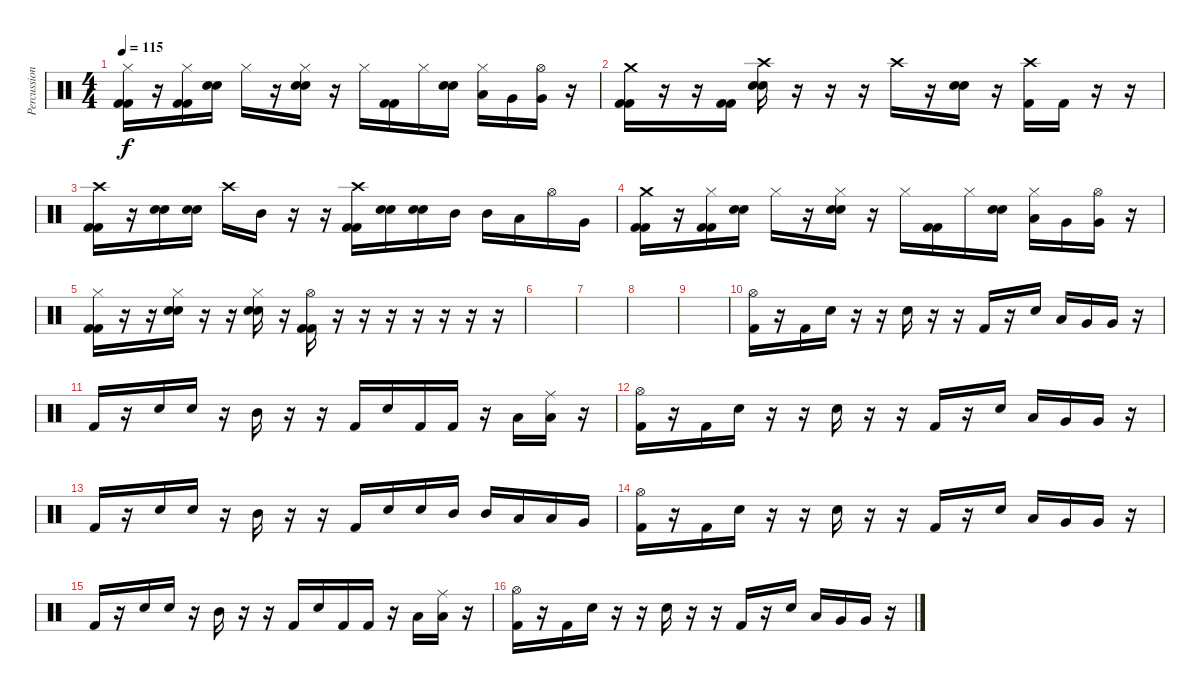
\track ("Percussion" "Percussion") {instrument percussion}
\staff {score}
\articulation defaults
\ts (4 4)
\tempo 115
\clef neutral
\ks c
("Hi-Hat (closed)" "Kick (hit) 2" "Kick (hit) 2").16{dy f} r.16 ("Hi-Hat (closed)" "Kick (hit) 2" "Kick (hit) 2").16 ("Electric Snare (hit)" "Electric Snare (hit)").16 "Hi-Hat (closed)".16 r.16 ("Hi-Hat (closed)" "Electric Snare (hit)" "Electric Snare (hit)").16 r.16 "Hi-Hat (closed)".16 ("Kick (hit) 2" "Kick (hit) 2").16 "Hi-Hat (closed)".16 ("Electric Snare (hit)" "Electric Snare (hit)").16 ("Hi-Hat (closed)" "Low Tom (hit)").16 "Very Low Tom (hit)".16 ("Hi-Hat (open)" "Very Low Tom (hit)").16 r.16 |
("Crash medium (hit)" "Kick (hit) 2" "Kick (hit) 2").16 r.16 r.16 ("Kick (hit) 2" "Kick (hit) 2").16 ("Crash high (hit)" "Electric Snare (hit)" "Electric Snare (hit)").16 r.16 r.16 r.16 "Crash high (hit)".16 r.16 ("Electric Snare (hit)" "Electric Snare (hit)").16 r.16 ("Crash high (hit)" "Kick (hit) 2").16 "Kick (hit) 2".16 r.16 r.16 |
("Crash high (hit)" "Kick (hit) 2" "Kick (hit) 2").16 r.16 ("Electric Snare (hit)" "Electric Snare (hit)").16 ("Electric Snare (hit)" "Electric Snare (hit)").16 "Crash high (hit)".16 "Mid Tom (hit)".16 r.16 r.16 ("Crash high (hit)" "Kick (hit) 2" "Kick (hit) 2").16 ("Electric Snare (hit)" "Electric Snare (hit)").16 ("Electric Snare (hit)" "Electric Snare (hit)").16 "Mid Tom (hit)".16 "Mid Tom (hit)".16 "Low Tom (hit)".16 "Hi-Hat (open)".16 "Very Low Tom (hit)".16 |
("Crash medium (hit)" "Kick (hit) 2" "Kick (hit) 2").16 r.16 ("Hi-Hat (closed)" "Kick (hit) 2" "Kick (hit) 2").16 ("Electric Snare (hit)" "Electric Snare (hit)").16 "Hi-Hat (closed)".16 r.16 ("Hi-Hat (closed)" "Electric Snare (hit)" "Electric Snare (hit)").16 r.16 "Hi-Hat (closed)".16 ("Kick (hit) 2" "Kick (hit) 2").16 "Hi-Hat (closed)".16 ("Electric Snare (hit)" "Electric Snare (hit)").16 ("Hi-Hat (closed)" "Low Tom (hit)").16 "Very Low Tom (hit)".16 ("Hi-Hat (open)" "Very Low Tom (hit)").16 r.16 |
("Hi-Hat (closed)" "Kick (hit) 2" "Kick (hit) 2").16 r.16 r.16 ("Hi-Hat (closed)" "Electric Snare (hit)" "Electric Snare (hit)").16 r.16 r.16 ("Hi-Hat (closed)" "Electric Snare (hit)" "Electric Snare (hit)").16 r.16 ("Hi-Hat (open)" "Kick (hit) 2" "Kick (hit) 2").16 r.16 r.16 r.16 r.16 r.16 r.16 r.16 |
|
|
|
|
("Hi-Hat (open)" "Kick (hit) 2").16 r.16 "Kick (hit) 2".16 "Electric Snare (hit)".16 r.16 r.16 "Electric Snare (hit)".16 r.16 r.16 "Kick (hit) 2".16 r.16 "Electric Snare (hit)".16 "Low Tom (hit)".16 "Very Low Tom (hit)".16 "Very Low Tom (hit)".16 r.16 |
"Kick (hit) 2".16 r.16 "Electric Snare (hit)".16 "Electric Snare (hit)".16 r.16 "Mid Tom (hit)".16 r.16 r.16 "Kick (hit) 2".16 "Electric Snare (hit)".16 "Kick (hit) 2".16 "Kick (hit) 2".16 r.16 "Low Floor Tom (hit)".16 ("Ride (middle)" "Low Floor Tom (hit)").16 r.16 |
("Hi-Hat (open)" "Kick (hit) 2").16 r.16 "Kick (hit) 2".16 "Electric Snare (hit)".16 r.16 r.16 "Electric Snare (hit)".16 r.16 r.16 "Kick (hit) 2".16 r.16 "Electric Snare (hit)".16 "Low Tom (hit)".16 "Very Low Tom (hit)".16 "Very Low Tom (hit)".16 r.16 |
"Kick (hit) 2".16 r.16 "Electric Snare (hit)".16 "Electric Snare (hit)".16 r.16 "Mid Tom (hit)".16 r.16 r.16 "Kick (hit) 2".16 "Electric Snare (hit)".16 "Electric Snare (hit)".16 "Mid Tom (hit)".16 "Mid Tom (hit)".16 "Low Tom (hit)".16 "Low Tom (hit)".16 "Very Low Tom (hit)".16 |
("Hi-Hat (open)" "Kick (hit) 2").16 r.16 "Kick (hit) 2".16 "Electric Snare (hit)".16 r.16 r.16 "Electric Snare (hit)".16 r.16 r.16 "Kick (hit) 2".16 r.16 "Electric Snare (hit)".16 "Low Tom (hit)".16 "Very Low Tom (hit)".16 "Very Low Tom (hit)".16 r.16 |
"Kick (hit) 2".16 r.16 "Electric Snare (hit)".16 "Electric Snare (hit)".16 r.16 "Mid Tom (hit)".16 r.16 r.16 "Kick (hit) 2".16 "Electric Snare (hit)".16 "Kick (hit) 2".16 "Kick (hit) 2".16 r.16 "Low Floor Tom (hit)".16 ("Ride (middle)" "Low Floor Tom (hit)").16 r.16 |
("Hi-Hat (open)" "Kick (hit) 2").16 r.16 "Kick (hit) 2".16 "Electric Snare (hit)".16 r.16 r.16 "Electric Snare (hit)".16 r.16 r.16 "Kick (hit) 2".16 r.16 "Electric Snare (hit)".16 "Low Tom (hit)".16 "Very Low Tom (hit)".16 "Very Low Tom (hit)".16 r.16
